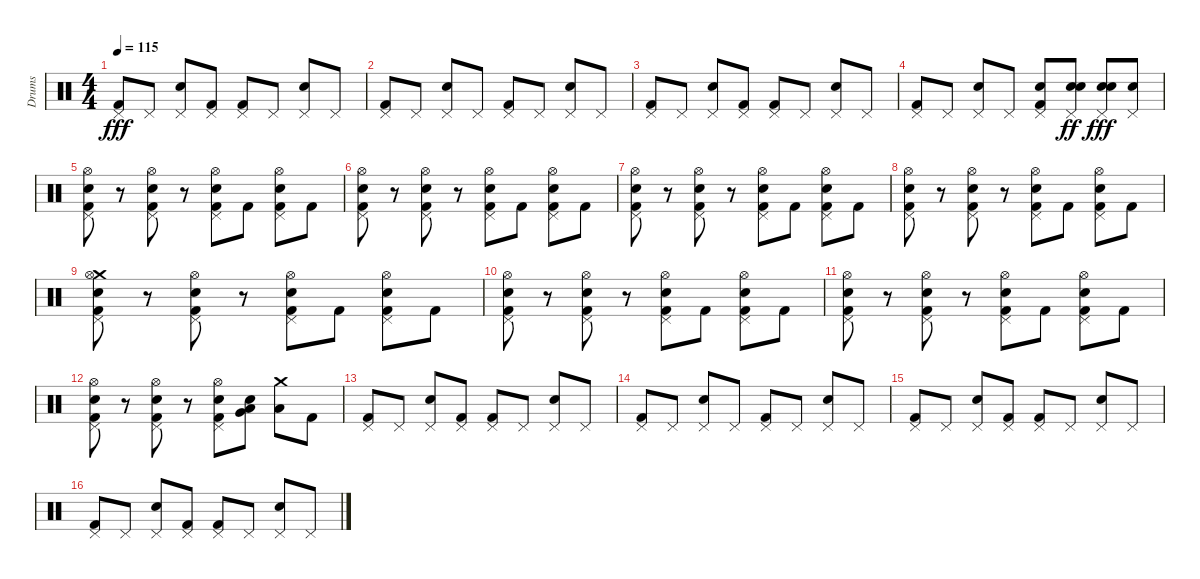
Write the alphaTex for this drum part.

\track ("Drums" "Drums") {instrument percussion}
\staff {score}
\articulation defaults
\ts (4 4)
\tempo 115
\clef neutral
\ks c
("Kick (hit) 2" "Pedal Hi-Hat (hit)").8{dy fff} "Pedal Hi-Hat (hit)".8 ("Snare (hit) 2" "Pedal Hi-Hat (hit)").8 ("Pedal Hi-Hat (hit)" "Kick (hit) 2").8 ("Pedal Hi-Hat (hit)" "Kick (hit) 2").8 "Pedal Hi-Hat (hit)".8 ("Pedal Hi-Hat (hit)" "Snare (hit) 2").8 "Pedal Hi-Hat (hit)".8 |
("Kick (hit) 2" "Pedal Hi-Hat (hit)").8 "Pedal Hi-Hat (hit)".8 ("Snare (hit) 2" "Pedal Hi-Hat (hit)").8 "Pedal Hi-Hat (hit)".8 ("Pedal Hi-Hat (hit)" "Kick (hit) 2").8 "Pedal Hi-Hat (hit)".8 ("Pedal Hi-Hat (hit)" "Snare (hit) 2").8 "Pedal Hi-Hat (hit)".8 |
("Kick (hit) 2" "Pedal Hi-Hat (hit)").8 "Pedal Hi-Hat (hit)".8 ("Snare (hit) 2" "Pedal Hi-Hat (hit)").8 ("Pedal Hi-Hat (hit)" "Kick (hit) 2").8 ("Pedal Hi-Hat (hit)" "Kick (hit) 2").8 "Pedal Hi-Hat (hit)".8 ("Pedal Hi-Hat (hit)" "Snare (hit) 2").8 "Pedal Hi-Hat (hit)".8 |
("Kick (hit) 2" "Pedal Hi-Hat (hit)").8 "Pedal Hi-Hat (hit)".8 ("Snare (hit) 2" "Pedal Hi-Hat (hit)").8 "Pedal Hi-Hat (hit)".8 ("Kick (hit) 2" "Pedal Hi-Hat (hit)" "Snare (hit) 2").8 ("Snare (hit) 2" "Snare (hit) 2" "Pedal Hi-Hat (hit)").8{dy ff volume 6} ("Snare (hit) 2" "Pedal Hi-Hat (hit)" "Snare (hit) 2").8{dy fff volume 9} ("Snare (hit) 2" "Pedal Hi-Hat (hit)").8{volume 12} |
("Pedal Hi-Hat (hit)" "Hi-Hat (open)" "Kick (hit) 2" "Snare (hit) 2").8 r.8 ("Pedal Hi-Hat (hit)" "Hi-Hat (open)" "Kick (hit) 2" "Snare (hit) 2").8 r.8 ("Pedal Hi-Hat (hit)" "Hi-Hat (open)" "Kick (hit) 2" "Snare (hit) 2").8 "Kick (hit) 2".8 ("Pedal Hi-Hat (hit)" "Hi-Hat (open)" "Kick (hit) 2" "Snare (hit) 2").8 "Kick (hit) 2".8 |
("Pedal Hi-Hat (hit)" "Hi-Hat (open)" "Kick (hit) 2" "Snare (hit) 2").8 r.8 ("Pedal Hi-Hat (hit)" "Hi-Hat (open)" "Kick (hit) 2" "Snare (hit) 2").8 r.8 ("Pedal Hi-Hat (hit)" "Hi-Hat (open)" "Kick (hit) 2" "Snare (hit) 2").8 "Kick (hit) 2".8 ("Pedal Hi-Hat (hit)" "Hi-Hat (open)" "Kick (hit) 2" "Snare (hit) 2").8 "Kick (hit) 2".8 |
("Pedal Hi-Hat (hit)" "Hi-Hat (open)" "Kick (hit) 2" "Snare (hit) 2").8 r.8 ("Pedal Hi-Hat (hit)" "Hi-Hat (open)" "Kick (hit) 2" "Snare (hit) 2").8 r.8 ("Pedal Hi-Hat (hit)" "Hi-Hat (open)" "Kick (hit) 2" "Snare (hit) 2").8 "Kick (hit) 2".8 ("Pedal Hi-Hat (hit)" "Hi-Hat (open)" "Kick (hit) 2" "Snare (hit) 2").8 "Kick (hit) 2".8 |
("Pedal Hi-Hat (hit)" "Hi-Hat (open)" "Kick (hit) 2" "Snare (hit) 2").8 r.8 ("Pedal Hi-Hat (hit)" "Hi-Hat (open)" "Kick (hit) 2" "Snare (hit) 2").8 r.8 ("Pedal Hi-Hat (hit)" "Hi-Hat (open)" "Kick (hit) 2" "Snare (hit) 2").8 "Kick (hit) 2".8 ("Pedal Hi-Hat (hit)" "Hi-Hat (open)" "Kick (hit) 2" "Snare (hit) 2").8 "Kick (hit) 2".8 |
("Crash medium (hit)" "Pedal Hi-Hat (hit)" "Hi-Hat (open)" "Kick (hit) 2" "Snare (hit) 2").8 r.8 ("Pedal Hi-Hat (hit)" "Hi-Hat (open)" "Kick (hit) 2" "Snare (hit) 2").8 r.8 ("Pedal Hi-Hat (hit)" "Hi-Hat (open)" "Kick (hit) 2" "Snare (hit) 2").8 "Kick (hit) 2".8 ("Pedal Hi-Hat (hit)" "Hi-Hat (open)" "Kick (hit) 2" "Snare (hit) 2").8 "Kick (hit) 2".8 |
("Pedal Hi-Hat (hit)" "Hi-Hat (open)" "Kick (hit) 2" "Snare (hit) 2").8 r.8 ("Pedal Hi-Hat (hit)" "Hi-Hat (open)" "Kick (hit) 2" "Snare (hit) 2").8 r.8 ("Pedal Hi-Hat (hit)" "Hi-Hat (open)" "Kick (hit) 2" "Snare (hit) 2").8 "Kick (hit) 2".8 ("Pedal Hi-Hat (hit)" "Hi-Hat (open)" "Kick (hit) 2" "Snare (hit) 2").8 "Kick (hit) 2".8 |
("Pedal Hi-Hat (hit)" "Hi-Hat (open)" "Kick (hit) 2" "Snare (hit) 2").8 r.8 ("Pedal Hi-Hat (hit)" "Hi-Hat (open)" "Kick (hit) 2" "Snare (hit) 2").8 r.8 ("Pedal Hi-Hat (hit)" "Hi-Hat (open)" "Kick (hit) 2" "Snare (hit) 2").8 "Kick (hit) 2".8 ("Pedal Hi-Hat (hit)" "Hi-Hat (open)" "Kick (hit) 2" "Snare (hit) 2").8 "Kick (hit) 2".8 |
("Pedal Hi-Hat (hit)" "Hi-Hat (open)" "Kick (hit) 2" "Snare (hit) 2").8 r.8 ("Pedal Hi-Hat (hit)" "Hi-Hat (open)" "Kick (hit) 2" "Snare (hit) 2").8 r.8 ("Pedal Hi-Hat (hit)" "Hi-Hat (open)" "Kick (hit) 2" "Snare (hit) 2").8 ("Snare (hit) 2" "Very Low Tom (hit)" "Low Floor Tom (hit)").8 ("Low Floor Tom (hit)" "Crash medium (hit)").8 "Kick (hit) 2".8 |
("Kick (hit) 2" "Pedal Hi-Hat (hit)").8 "Pedal Hi-Hat (hit)".8 ("Snare (hit) 2" "Pedal Hi-Hat (hit)").8 ("Pedal Hi-Hat (hit)" "Kick (hit) 2").8 ("Pedal Hi-Hat (hit)" "Kick (hit) 2").8 "Pedal Hi-Hat (hit)".8 ("Pedal Hi-Hat (hit)" "Snare (hit) 2").8 "Pedal Hi-Hat (hit)".8 |
("Kick (hit) 2" "Pedal Hi-Hat (hit)").8 "Pedal Hi-Hat (hit)".8 ("Snare (hit) 2" "Pedal Hi-Hat (hit)").8 "Pedal Hi-Hat (hit)".8 ("Pedal Hi-Hat (hit)" "Kick (hit) 2").8 "Pedal Hi-Hat (hit)".8 ("Pedal Hi-Hat (hit)" "Snare (hit) 2").8 "Pedal Hi-Hat (hit)".8 |
("Kick (hit) 2" "Pedal Hi-Hat (hit)").8 "Pedal Hi-Hat (hit)".8 ("Snare (hit) 2" "Pedal Hi-Hat (hit)").8 ("Pedal Hi-Hat (hit)" "Kick (hit) 2").8 ("Pedal Hi-Hat (hit)" "Kick (hit) 2").8 "Pedal Hi-Hat (hit)".8 ("Pedal Hi-Hat (hit)" "Snare (hit) 2").8 "Pedal Hi-Hat (hit)".8 |
("Kick (hit) 2" "Pedal Hi-Hat (hit)").8 "Pedal Hi-Hat (hit)".8 ("Snare (hit) 2" "Pedal Hi-Hat (hit)").8 ("Pedal Hi-Hat (hit)" "Kick (hit) 2").8 ("Pedal Hi-Hat (hit)" "Kick (hit) 2").8 "Pedal Hi-Hat (hit)".8 ("Pedal Hi-Hat (hit)" "Snare (hit) 2").8 "Pedal Hi-Hat (hit)".8
